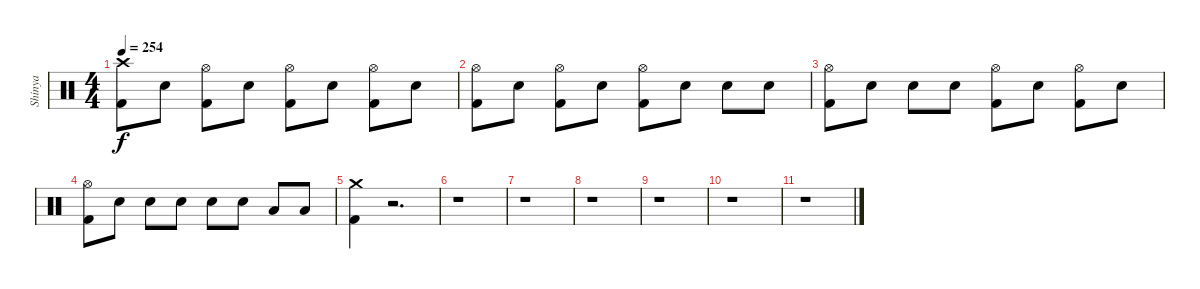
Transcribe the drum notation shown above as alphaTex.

\track ("Shinya" "Shinya") {instrument percussion}
\staff {score}
\articulation defaults
\ts (4 4)
\tempo 254
\clef neutral
\ks c
("Crash high (hit)" "Kick (hit) 2").8{dy f} "Electric Snare (hit)".8 ("Hi-Hat (open)" "Kick (hit) 2").8 "Electric Snare (hit)".8 ("Hi-Hat (open)" "Kick (hit) 2").8 "Electric Snare (hit)".8 ("Hi-Hat (open)" "Kick (hit) 2").8 "Electric Snare (hit)".8 |
("Hi-Hat (open)" "Kick (hit) 2").8 "Electric Snare (hit)".8 ("Hi-Hat (open)" "Kick (hit) 2").8 "Electric Snare (hit)".8 ("Hi-Hat (open)" "Kick (hit) 2").8 "Electric Snare (hit)".8 "Electric Snare (hit)".8 "Electric Snare (hit)".8 |
("Hi-Hat (open)" "Kick (hit) 2").8 "Electric Snare (hit)".8 "Electric Snare (hit)".8 "Electric Snare (hit)".8 ("Hi-Hat (open)" "Kick (hit) 2").8 "Electric Snare (hit)".8 ("Hi-Hat (open)" "Kick (hit) 2").8 "Electric Snare (hit)".8 |
("Hi-Hat (open)" "Kick (hit) 2").8 "Electric Snare (hit)".8 "Electric Snare (hit)".8 "Electric Snare (hit)".8 "Electric Snare (hit)".8 "Electric Snare (hit)".8 "Low Tom (hit)".8 "Low Floor Tom (hit)".8 |
("Kick (hit) 2" "Crash medium (hit)").4 r.2{d} |
r.1 |
r.1 |
r.1 |
r.1 |
r.1 |
r.1
